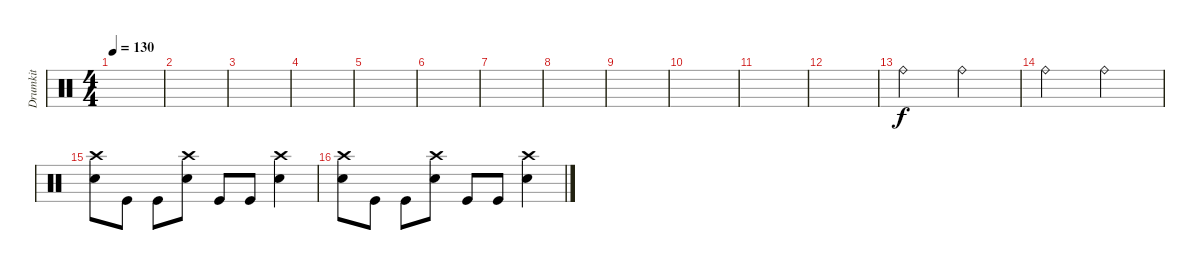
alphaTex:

\track ("Drumkit" "Drumkit") {instrument percussion}
\staff {score}
\articulation defaults
\ts (4 4)
\tempo 130
\clef neutral
\ks c
|
|
|
|
|
|
|
|
|
|
|
|
"Ride (bell)".2 "Ride (bell)".2 |
"Ride (bell)".2 "Ride (bell)".2 |
("Snare (hit) 2" "Crash high (hit)").8 "Kick (hit)".8 "Kick (hit)".8 ("Snare (hit) 2" "Crash high (hit)").8 "Kick (hit)".8 "Kick (hit)".8 ("Snare (hit) 2" "Crash high (hit)").4 |
("Snare (hit) 2" "Crash high (hit)").8 "Kick (hit)".8 "Kick (hit)".8 ("Snare (hit) 2" "Crash high (hit)").8 "Kick (hit)".8 "Kick (hit)".8 ("Snare (hit) 2" "Crash high (hit)").4
